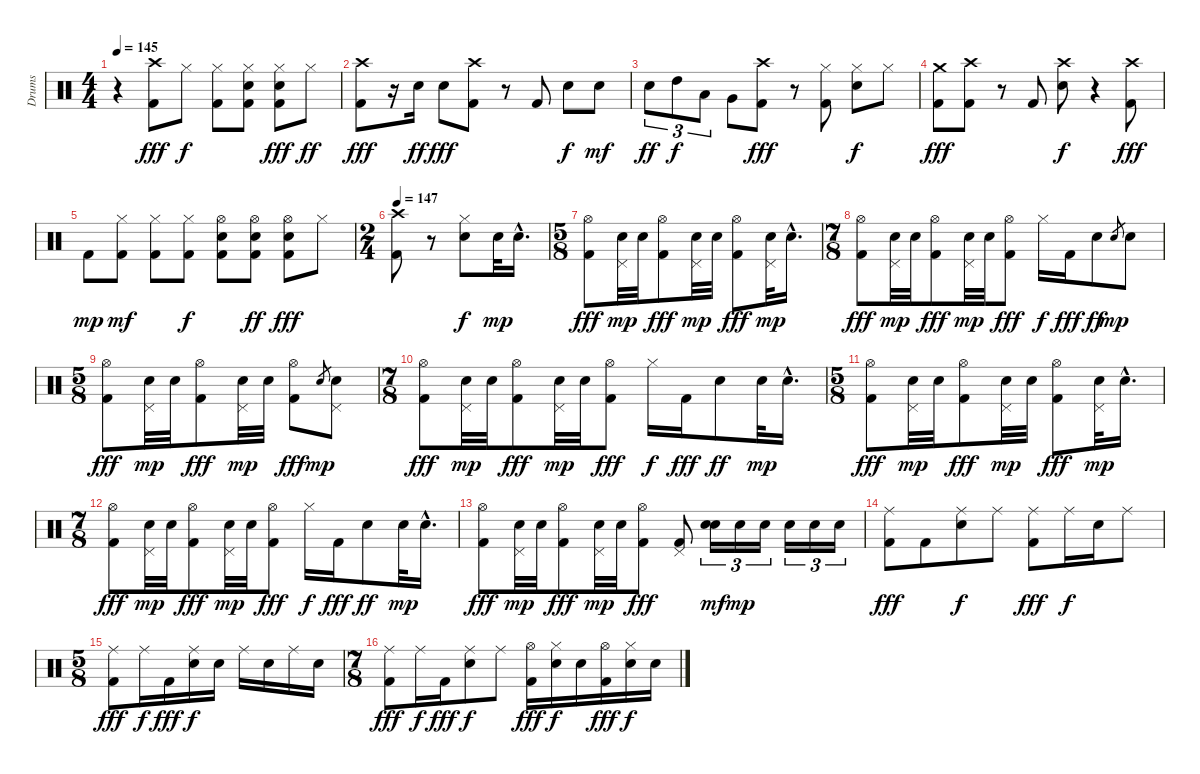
\track ("Drums" "Drums") {instrument percussion}
\staff {score}
\articulation defaults
\ts (4 4)
\tempo 145
\clef neutral
\ks c
r.4{dy fff} ("Kick (hit) 2" "Crash high (hit)").8 "Hi-Hat (closed)".8{dy f} ("Kick (hit) 2" "Hi-Hat (closed)").8 ("Kick (hit) 2" "Snare (hit) 2" "Hi-Hat (closed)").8 ("Kick (hit) 2" "Snare (hit) 2" "Hi-Hat (closed)").8{dy fff} "Hi-Hat (closed)".8{dy ff} |
("Kick (hit) 2" "Crash high (hit)").8{dy fff} r.16 "Snare (hit) 2".16{dy ff} "Snare (hit) 2".8{dy fff} ("Kick (hit) 2" "Crash high (hit)").8 r.8 "Kick (hit) 2".8 "Snare (hit) 2".8{dy f} "Snare (hit) 2".8{dy mf} |
"Snare (hit) 2".8{tu (3 2) dy ff} "High Tom (hit)".8{tu (3 2) dy f} "Low Tom (hit)".8{tu (3 2)} "Very Low Tom (hit)".8 ("Kick (hit) 2" "Crash high (hit)").8{dy fff} r.8 ("Kick (hit) 2" "Hi-Hat (closed)").8 ("Snare (hit) 2" "Hi-Hat (closed)").8{dy f} "Hi-Hat (closed)".8 |
("Kick (hit) 2" "Crash medium (hit)").8{dy fff} ("Kick (hit) 2" "Crash high (hit)").8 r.8 "Kick (hit) 2".8 ("Snare (hit) 2" "Crash high (hit)").8{dy f} r.4 ("Kick (hit) 2" "Crash high (hit)").8{dy fff} |
"Kick (hit) 2".8{dy mp} ("Kick (hit) 2" "Hi-Hat (closed)").8{dy mf} ("Kick (hit) 2" "Hi-Hat (closed)").8 ("Kick (hit) 2" "Hi-Hat (closed)").8{dy f} ("Kick (hit) 2" "Snare (hit) 2" "Hi-Hat (open)").8 ("Kick (hit) 2" "Snare (hit) 2" "Hi-Hat (open)").8{dy ff} ("Kick (hit) 2" "Snare (hit) 2" "Hi-Hat (open)").8{dy fff} "Hi-Hat (closed)".8 |
\ts (2 4)
\tempo 147
("Kick (hit) 2" "Crash high (hit)").8 r.8 ("Snare (hit) 2" "Hi-Hat (closed)").8{dy f} "Snare (hit) 2".32{dy mp} "Snare (hit) 2"{hac}.16{d} |
\ts (5 8)
("Kick (hit) 2" "Hi-Hat (open)").8{dy fff} ("Snare (hit) 2" "Pedal Hi-Hat (hit)").32{dy mp} "Snare (hit) 2".32 ("Kick (hit) 2" "Hi-Hat (open)").8{dy fff} ("Snare (hit) 2" "Pedal Hi-Hat (hit)").32{dy mp} "Snare (hit) 2".32 ("Kick (hit) 2" "Hi-Hat (open)").8{dy fff} ("Snare (hit) 2" "Pedal Hi-Hat (hit)").32{dy mp} "Snare (hit) 2"{hac}.16{d} |
\ts (7 8)
("Kick (hit) 2" "Hi-Hat (open)").8{dy fff} ("Snare (hit) 2" "Pedal Hi-Hat (hit)").32{dy mp} "Snare (hit) 2".32 ("Kick (hit) 2" "Hi-Hat (open)").8{dy fff} ("Snare (hit) 2" "Pedal Hi-Hat (hit)").32{dy mp} "Snare (hit) 2".32 ("Kick (hit) 2" "Hi-Hat (open)").8{dy fff} "Hi-Hat (closed)".16{dy f} "Kick (hit) 2".16{dy fff} "Snare (hit) 2".8{dy ff} "Snare (hit) 2".8{gr dy mp} "Snare (hit) 2".8 |
\ts (5 8)
("Kick (hit) 2" "Hi-Hat (open)").8{dy fff} ("Snare (hit) 2" "Pedal Hi-Hat (hit)").32{dy mp} "Snare (hit) 2".32 ("Kick (hit) 2" "Hi-Hat (open)").8{dy fff} ("Snare (hit) 2" "Pedal Hi-Hat (hit)").32{dy mp} "Snare (hit) 2".32 ("Kick (hit) 2" "Hi-Hat (open)").8{dy fff} "Snare (hit) 2".8{gr dy mp} ("Snare (hit) 2" "Pedal Hi-Hat (hit)").8 |
\ts (7 8)
("Kick (hit) 2" "Hi-Hat (open)").8{dy fff} ("Snare (hit) 2" "Pedal Hi-Hat (hit)").32{dy mp} "Snare (hit) 2".32 ("Kick (hit) 2" "Hi-Hat (open)").8{dy fff} ("Snare (hit) 2" "Pedal Hi-Hat (hit)").32{dy mp} "Snare (hit) 2".32 ("Kick (hit) 2" "Hi-Hat (open)").8{dy fff} "Hi-Hat (closed)".16{dy f} "Kick (hit) 2".16{dy fff} "Snare (hit) 2".8{dy ff} "Snare (hit) 2".32{dy mp} "Snare (hit) 2"{hac}.16{d} |
\ts (5 8)
("Kick (hit) 2" "Hi-Hat (open)").8{dy fff} ("Snare (hit) 2" "Pedal Hi-Hat (hit)").32{dy mp} "Snare (hit) 2".32 ("Kick (hit) 2" "Hi-Hat (open)").8{dy fff} ("Snare (hit) 2" "Pedal Hi-Hat (hit)").32{dy mp} "Snare (hit) 2".32 ("Kick (hit) 2" "Hi-Hat (open)").8{dy fff} ("Snare (hit) 2" "Pedal Hi-Hat (hit)").32{dy mp} "Snare (hit) 2"{hac}.16{d} |
\ts (7 8)
("Kick (hit) 2" "Hi-Hat (open)").8{dy fff} ("Snare (hit) 2" "Pedal Hi-Hat (hit)").32{dy mp} "Snare (hit) 2".32 ("Kick (hit) 2" "Hi-Hat (open)").8{dy fff} ("Snare (hit) 2" "Pedal Hi-Hat (hit)").32{dy mp} "Snare (hit) 2".32 ("Kick (hit) 2" "Hi-Hat (open)").8{dy fff} "Hi-Hat (closed)".16{dy f} "Kick (hit) 2".16{dy fff} "Snare (hit) 2".8{dy ff} "Snare (hit) 2".32{dy mp} "Snare (hit) 2"{hac}.16{d} |
("Kick (hit) 2" "Hi-Hat (open)").8{dy fff} ("Snare (hit) 2" "Pedal Hi-Hat (hit)").32{dy mp} "Snare (hit) 2".32 ("Kick (hit) 2" "Hi-Hat (open)").8{dy fff} ("Snare (hit) 2" "Pedal Hi-Hat (hit)").32{dy mp} "Snare (hit) 2".32 ("Kick (hit) 2" "Hi-Hat (open)").8{dy fff} ("Kick (hit) 2" "Pedal Hi-Hat (hit)").8 ("Snare (hit) 2" "Snare (hit) 2").16{tu (3 2) dy mf} "Snare (hit) 2".16{tu (3 2) dy mp} "Snare (hit) 2".16{tu (3 2)} "Snare (hit) 2".16{tu (3 2)} "Snare (hit) 2".16{tu (3 2)} "Snare (hit) 2".16{tu (3 2)} |
("Kick (hit) 2" "Ride (middle)").8{dy fff} "Kick (hit) 2".8 ("Snare (hit) 2" "Ride (middle)").8{dy f} "Ride (middle)".8 ("Kick (hit) 2" "Ride (middle)").8{dy fff} "Ride (middle)".16{dy f} "Snare (hit) 2".16 "Ride (middle)".8 |
\ts (5 8)
("Kick (hit) 2" "Ride (middle)").8{dy fff} "Ride (middle)".16{dy f} "Kick (hit) 2".16{dy fff} ("Snare (hit) 2" "Ride (middle)").16{dy f} "Snare (hit) 2".16 "Ride (middle)".16 "Snare (hit) 2".16 "Ride (middle)".16 "Snare (hit) 2".16 |
\ts (7 8)
("Kick (hit) 2" "Ride (middle)").8{dy fff} "Ride (middle)".16{dy f} "Kick (hit) 2".16{dy fff} ("Snare (hit) 2" "Ride (middle)").8{dy f} "Ride (middle)".8 ("Kick (hit) 2" "Hi-Hat (open)").16{dy fff} ("Snare (hit) 2" "Hi-Hat (closed)").16{dy f} "Snare (hit) 2".16 ("Kick (hit) 2" "Hi-Hat (open)").16{dy fff} ("Snare (hit) 2" "Hi-Hat (closed)").16{dy f} "Snare (hit) 2".16
